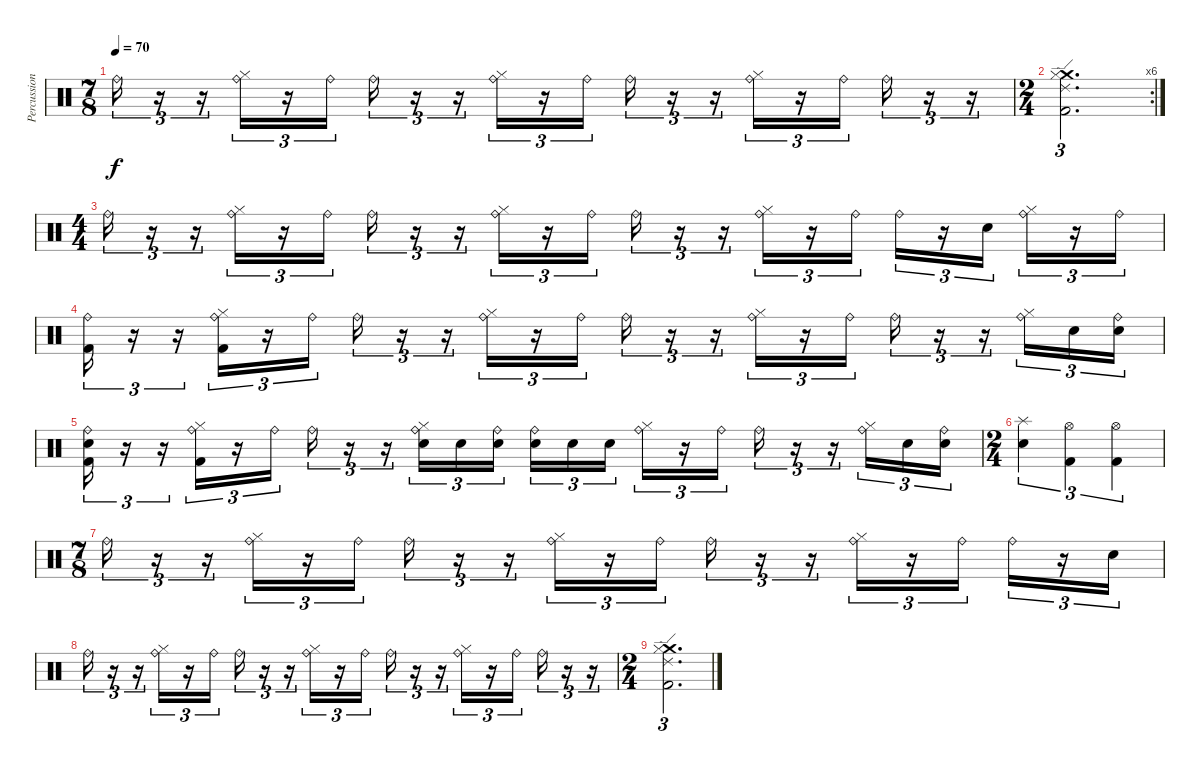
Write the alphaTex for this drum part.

\track ("Percussion" "Percussion") {instrument percussion}
\staff {score}
\articulation defaults
\ts (7 8)
\tempo 70
\clef neutral
\ks c "Ride (bell)".16{tu (3 2) dy f}
r.16{tu (3 2)} r.16{tu (3 2)} ("Hi-Hat (closed)" "Ride (bell)").16{tu (3 2)} r.16{tu (3 2)} "Ride (bell)".16{tu (3 2)} "Ride (bell)".16{tu (3 2)} r.16{tu (3 2)} r.16{tu (3 2)} ("Hi-Hat (closed)" "Ride (bell)").16{tu (3 2)} r.16{tu (3 2)} "Ride (bell)".16{tu (3 2)} "Ride (bell)".16{tu (3 2)} r.16{tu (3 2)} r.16{tu (3 2)} ("Hi-Hat (closed)" "Ride (bell)").16{tu (3 2)} r.16{tu (3 2)} "Ride (bell)".16{tu (3 2)} "Ride (bell)".16{tu (3 2)} r.16{tu (3 2)} r.16{tu (3 2)} |
\rc 6
\ts (2 4)
("Crash medium (hit)" "Kick (hit) 2" "Hi-Hat (closed)" "Ride (edge) 2").2{d tu (3 2)} |
\ts (4 4)
"Ride (bell)".16{tu (3 2)} r.16{tu (3 2)} r.16{tu (3 2)} ("Hi-Hat (closed)" "Ride (bell)").16{tu (3 2)} r.16{tu (3 2)} "Ride (bell)".16{tu (3 2)} "Ride (bell)".16{tu (3 2)} r.16{tu (3 2)} r.16{tu (3 2)} ("Hi-Hat (closed)" "Ride (bell)").16{tu (3 2)} r.16{tu (3 2)} "Ride (bell)".16{tu (3 2)} "Ride (bell)".16{tu (3 2)} r.16{tu (3 2)} r.16{tu (3 2)} ("Hi-Hat (closed)" "Ride (bell)").16{tu (3 2)} r.16{tu (3 2)} "Ride (bell)".16{tu (3 2)} "Ride (bell)".16{tu (3 2)} r.16{tu (3 2)} "Snare (hit) 2".16{tu (3 2)} ("Hi-Hat (closed)" "Ride (bell)").16{tu (3 2)} r.16{tu (3 2)} "Ride (bell)".16{tu (3 2)} |
("Kick (hit) 2" "Ride (bell)").16{tu (3 2)} r.16{tu (3 2)} r.16{tu (3 2)} ("Hi-Hat (closed)" "Ride (bell)" "Kick (hit) 2").16{tu (3 2)} r.16{tu (3 2)} "Ride (bell)".16{tu (3 2)} "Ride (bell)".16{tu (3 2)} r.16{tu (3 2)} r.16{tu (3 2)} ("Hi-Hat (closed)" "Ride (bell)").16{tu (3 2)} r.16{tu (3 2)} "Ride (bell)".16{tu (3 2)} "Ride (bell)".16{tu (3 2)} r.16{tu (3 2)} r.16{tu (3 2)} ("Hi-Hat (closed)" "Ride (bell)").16{tu (3 2)} r.16{tu (3 2)} "Ride (bell)".16{tu (3 2)} "Ride (bell)".16{tu (3 2)} r.16{tu (3 2)} r.16{tu (3 2)} ("Hi-Hat (closed)" "Ride (bell)").16{tu (3 2)} "Snare (hit) 2".16{tu (3 2)} ("Snare (hit) 2" "Ride (bell)").16{tu (3 2)} |
("Kick (hit) 2" "Ride (bell)" "Snare (hit) 2").16{tu (3 2)} r.16{tu (3 2)} r.16{tu (3 2)} ("Hi-Hat (closed)" "Ride (bell)" "Kick (hit) 2").16{tu (3 2)} r.16{tu (3 2)} "Ride (bell)".16{tu (3 2)} "Ride (bell)".16{tu (3 2)} r.16{tu (3 2)} r.16{tu (3 2)} ("Hi-Hat (closed)" "Ride (bell)" "Snare (hit) 2").16{tu (3 2)} "Snare (hit) 2".16{tu (3 2)} ("Ride (bell)" "Snare (hit) 2").16{tu (3 2)} ("Ride (bell)" "Snare (hit) 2").16{tu (3 2)} "Snare (hit) 2".16{tu (3 2)} "Snare (hit) 2".16{tu (3 2) beam splitsecondary} ("Hi-Hat (closed)" "Ride (bell)").16{tu (3 2)} r.16{tu (3 2)} "Ride (bell)".16{tu (3 2)} "Ride (bell)".16{tu (3 2)} r.16{tu (3 2)} r.16{tu (3 2)} ("Hi-Hat (closed)" "Ride (bell)").16{tu (3 2)} "Snare (hit) 2".16{tu (3 2)} ("Snare (hit) 2" "Ride (bell)").16{tu (3 2)} |
\ts (2 4)
("Snare (hit) 2" "Splash (hit)").4{tu (3 2)} ("Kick (hit) 2" "Hi-Hat (open)").4{tu (3 2)} ("Kick (hit) 2" "Hi-Hat (open)").4{tu (3 2)} |
\ts (7 8)
"Ride (bell)".16{tu (3 2)} r.16{tu (3 2)} r.16{tu (3 2)} ("Hi-Hat (closed)" "Ride (bell)").16{tu (3 2)} r.16{tu (3 2)} "Ride (bell)".16{tu (3 2)} "Ride (bell)".16{tu (3 2)} r.16{tu (3 2)} r.16{tu (3 2)} ("Hi-Hat (closed)" "Ride (bell)").16{tu (3 2)} r.16{tu (3 2)} "Ride (bell)".16{tu (3 2)} "Ride (bell)".16{tu (3 2)} r.16{tu (3 2)} r.16{tu (3 2)} ("Hi-Hat (closed)" "Ride (bell)").16{tu (3 2)} r.16{tu (3 2)} "Ride (bell)".16{tu (3 2)} "Ride (bell)".16{tu (3 2)} r.16{tu (3 2)} "Snare (hit) 2".16{tu (3 2)} |
"Ride (bell)".16{tu (3 2)} r.16{tu (3 2)} r.16{tu (3 2)} ("Hi-Hat (closed)" "Ride (bell)").16{tu (3 2)} r.16{tu (3 2)} "Ride (bell)".16{tu (3 2)} "Ride (bell)".16{tu (3 2)} r.16{tu (3 2)} r.16{tu (3 2)} ("Hi-Hat (closed)" "Ride (bell)").16{tu (3 2)} r.16{tu (3 2)} "Ride (bell)".16{tu (3 2)} "Ride (bell)".16{tu (3 2)} r.16{tu (3 2)} r.16{tu (3 2)} ("Hi-Hat (closed)" "Ride (bell)").16{tu (3 2)} r.16{tu (3 2)} "Ride (bell)".16{tu (3 2)} "Ride (bell)".16{tu (3 2)} r.16{tu (3 2)} r.16{tu (3 2)} |
\ts (2 4)
("Crash medium (hit)" "Kick (hit) 2" "Hi-Hat (closed)" "Ride (edge) 2").2{d tu (3 2)}
